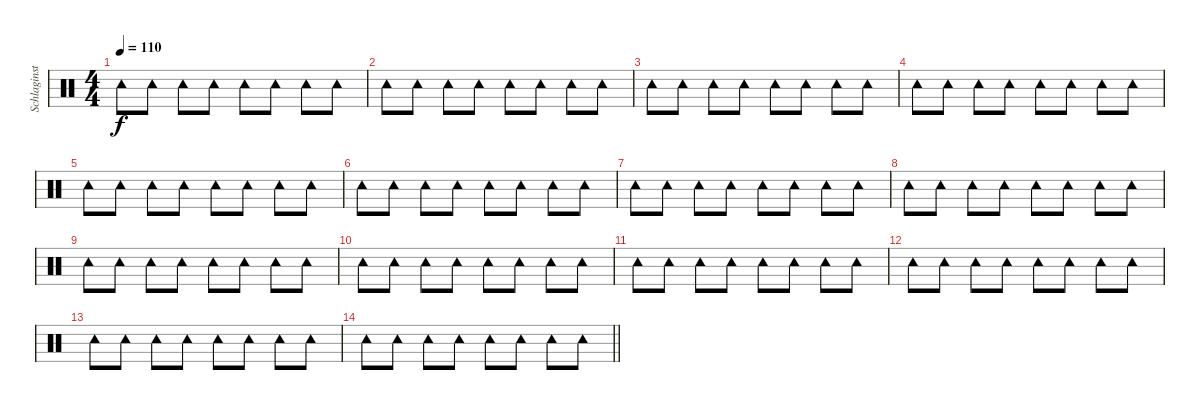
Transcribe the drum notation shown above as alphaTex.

\track ("Schlaginstrumente - Auswahl" "Schlaginst") {instrument percussion}
\staff {score}
\articulation defaults
\ts (4 4)
\tempo 110
\clef neutral
\ks c "Tambourine (hit)".8{dy f balance 16} "Tambourine (hit)".8 "Tambourine (hit)".8 "Tambourine (hit)".8 "Tambourine (hit)".8 "Tambourine (hit)".8 "Tambourine (hit)".8 "Tambourine (hit)".8
|
"Tambourine (hit)".8{balance 16} "Tambourine (hit)".8 "Tambourine (hit)".8 "Tambourine (hit)".8 "Tambourine (hit)".8 "Tambourine (hit)".8 "Tambourine (hit)".8 "Tambourine (hit)".8 |
"Tambourine (hit)".8{balance 16} "Tambourine (hit)".8 "Tambourine (hit)".8 "Tambourine (hit)".8 "Tambourine (hit)".8 "Tambourine (hit)".8 "Tambourine (hit)".8 "Tambourine (hit)".8 |
"Tambourine (hit)".8{balance 16} "Tambourine (hit)".8 "Tambourine (hit)".8 "Tambourine (hit)".8 "Tambourine (hit)".8 "Tambourine (hit)".8 "Tambourine (hit)".8 "Tambourine (hit)".8 |
"Tambourine (hit)".8{balance 16} "Tambourine (hit)".8 "Tambourine (hit)".8 "Tambourine (hit)".8 "Tambourine (hit)".8 "Tambourine (hit)".8 "Tambourine (hit)".8 "Tambourine (hit)".8 |
"Tambourine (hit)".8{balance 16} "Tambourine (hit)".8 "Tambourine (hit)".8 "Tambourine (hit)".8 "Tambourine (hit)".8 "Tambourine (hit)".8 "Tambourine (hit)".8 "Tambourine (hit)".8 |
"Tambourine (hit)".8{balance 16} "Tambourine (hit)".8 "Tambourine (hit)".8 "Tambourine (hit)".8 "Tambourine (hit)".8 "Tambourine (hit)".8 "Tambourine (hit)".8 "Tambourine (hit)".8 |
"Tambourine (hit)".8{balance 16} "Tambourine (hit)".8 "Tambourine (hit)".8 "Tambourine (hit)".8 "Tambourine (hit)".8 "Tambourine (hit)".8 "Tambourine (hit)".8 "Tambourine (hit)".8 |
"Tambourine (hit)".8{balance 16} "Tambourine (hit)".8 "Tambourine (hit)".8 "Tambourine (hit)".8 "Tambourine (hit)".8 "Tambourine (hit)".8 "Tambourine (hit)".8 "Tambourine (hit)".8 |
"Tambourine (hit)".8{balance 16} "Tambourine (hit)".8 "Tambourine (hit)".8 "Tambourine (hit)".8 "Tambourine (hit)".8 "Tambourine (hit)".8 "Tambourine (hit)".8 "Tambourine (hit)".8 |
"Tambourine (hit)".8{balance 16} "Tambourine (hit)".8 "Tambourine (hit)".8 "Tambourine (hit)".8 "Tambourine (hit)".8 "Tambourine (hit)".8 "Tambourine (hit)".8 "Tambourine (hit)".8 |
"Tambourine (hit)".8{balance 16} "Tambourine (hit)".8 "Tambourine (hit)".8 "Tambourine (hit)".8 "Tambourine (hit)".8 "Tambourine (hit)".8 "Tambourine (hit)".8 "Tambourine (hit)".8 |
"Tambourine (hit)".8{balance 16} "Tambourine (hit)".8 "Tambourine (hit)".8 "Tambourine (hit)".8 "Tambourine (hit)".8 "Tambourine (hit)".8 "Tambourine (hit)".8 "Tambourine (hit)".8 |
\barLineRight lightlight "Tambourine (hit)".8{balance 16} "Tambourine (hit)".8 "Tambourine (hit)".8 "Tambourine (hit)".8 "Tambourine (hit)".8 "Tambourine (hit)".8 "Tambourine (hit)".8 "Tambourine (hit)".8
